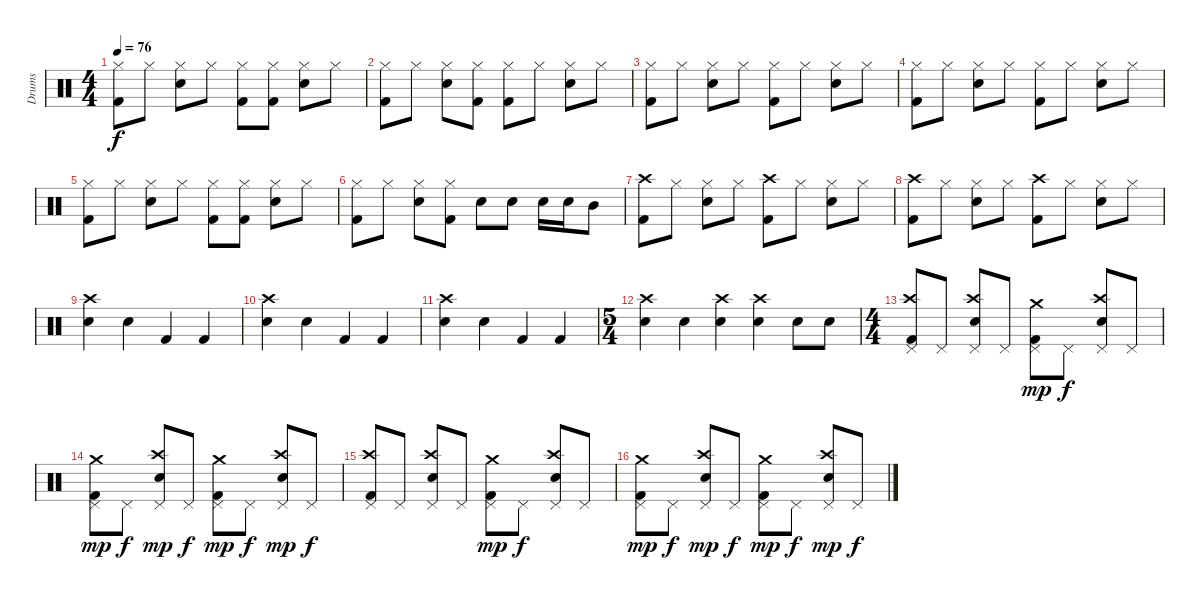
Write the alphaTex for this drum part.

\track ("Drums" "Drums") {instrument percussion}
\staff {score}
\articulation defaults
\ts (4 4)
\tempo 76
\clef neutral
\ks c
("Hi-Hat (closed)" "Kick (hit) 2").8{dy f} "Hi-Hat (closed)".8 ("Hi-Hat (closed)" "Snare (hit) 2").8 "Hi-Hat (closed)".8 ("Hi-Hat (closed)" "Kick (hit) 2").8 ("Hi-Hat (closed)" "Kick (hit) 2").8 ("Hi-Hat (closed)" "Snare (hit) 2").8 "Hi-Hat (closed)".8 |
("Hi-Hat (closed)" "Kick (hit) 2").8 "Hi-Hat (closed)".8 ("Hi-Hat (closed)" "Snare (hit) 2").8 ("Hi-Hat (closed)" "Kick (hit) 2").8 ("Hi-Hat (closed)" "Kick (hit) 2").8 "Hi-Hat (closed)".8 ("Hi-Hat (closed)" "Snare (hit) 2").8 "Hi-Hat (closed)".8 |
("Hi-Hat (closed)" "Kick (hit) 2").8 "Hi-Hat (closed)".8 ("Hi-Hat (closed)" "Snare (hit) 2").8 "Hi-Hat (closed)".8 ("Hi-Hat (closed)" "Kick (hit) 2").8 "Hi-Hat (closed)".8 ("Hi-Hat (closed)" "Snare (hit) 2").8 "Hi-Hat (closed)".8 |
("Hi-Hat (closed)" "Kick (hit) 2").8 "Hi-Hat (closed)".8 ("Hi-Hat (closed)" "Snare (hit) 2").8 "Hi-Hat (closed)".8 ("Hi-Hat (closed)" "Kick (hit) 2").8 "Hi-Hat (closed)".8 ("Hi-Hat (closed)" "Snare (hit) 2").8 "Hi-Hat (closed)".8 |
("Hi-Hat (closed)" "Kick (hit) 2").8 "Hi-Hat (closed)".8 ("Hi-Hat (closed)" "Snare (hit) 2").8 "Hi-Hat (closed)".8 ("Hi-Hat (closed)" "Kick (hit) 2").8 ("Hi-Hat (closed)" "Kick (hit) 2").8 ("Hi-Hat (closed)" "Snare (hit) 2").8 "Hi-Hat (closed)".8 |
("Hi-Hat (closed)" "Kick (hit) 2").8 "Hi-Hat (closed)".8 ("Hi-Hat (closed)" "Snare (hit) 2").8 ("Hi-Hat (closed)" "Kick (hit) 2").8 "Snare (hit) 2".8 "Snare (hit) 2".8 "Snare (hit) 2".16 "Snare (hit) 2".16 "Mid Tom (hit)".8 |
("Crash high (hit)" "Kick (hit) 2").8 "Hi-Hat (closed)".8 ("Hi-Hat (closed)" "Snare (hit) 2").8 "Hi-Hat (closed)".8 ("Crash high (hit)" "Kick (hit) 2").8 "Hi-Hat (closed)".8 ("Hi-Hat (closed)" "Snare (hit) 2").8 "Hi-Hat (closed)".8 |
("Crash high (hit)" "Kick (hit) 2").8 "Hi-Hat (closed)".8 ("Hi-Hat (closed)" "Snare (hit) 2").8 "Hi-Hat (closed)".8 ("Crash high (hit)" "Kick (hit) 2").8 "Hi-Hat (closed)".8 ("Hi-Hat (closed)" "Snare (hit) 2").8 "Hi-Hat (closed)".8 |
("Crash high (hit)" "Snare (hit) 2").4 "Snare (hit) 2".4 "Kick (hit) 2".4 "Kick (hit) 2".4 |
("Crash high (hit)" "Snare (hit) 2").4 "Snare (hit) 2".4 "Kick (hit) 2".4 "Kick (hit) 2".4 |
("Crash high (hit)" "Snare (hit) 2").4 "Snare (hit) 2".4 "Kick (hit) 2".4 "Kick (hit) 2".4 |
\ts (5 4)
("Crash high (hit)" "Snare (hit) 2").4 "Snare (hit) 2".4 ("Crash high (hit)" "Snare (hit) 2").4 ("Crash high (hit)" "Snare (hit) 2").4 "Snare (hit) 2".8 "Snare (hit) 2".8 |
\ts (4 4)
("Crash high (hit)" "Pedal Hi-Hat (hit)" "Kick (hit) 2").8 "Pedal Hi-Hat (hit)".8 ("Crash high (hit)" "Pedal Hi-Hat (hit)" "Snare (hit) 2").8 "Pedal Hi-Hat (hit)".8 ("Crash medium (hit)" "Pedal Hi-Hat (hit)" "Kick (hit) 2").8{dy mp} "Pedal Hi-Hat (hit)".8{dy f} ("Crash high (hit)" "Pedal Hi-Hat (hit)" "Snare (hit) 2").8 "Pedal Hi-Hat (hit)".8 |
("Crash medium (hit)" "Pedal Hi-Hat (hit)" "Kick (hit) 2").8{dy mp} "Pedal Hi-Hat (hit)".8{dy f} ("Crash high (hit)" "Pedal Hi-Hat (hit)" "Snare (hit) 2").8{dy mp} "Pedal Hi-Hat (hit)".8{dy f} ("Crash medium (hit)" "Pedal Hi-Hat (hit)" "Kick (hit) 2").8{dy mp} "Pedal Hi-Hat (hit)".8{dy f} ("Crash high (hit)" "Pedal Hi-Hat (hit)" "Snare (hit) 2").8{dy mp} "Pedal Hi-Hat (hit)".8{dy f} |
("Crash high (hit)" "Pedal Hi-Hat (hit)" "Kick (hit) 2").8 "Pedal Hi-Hat (hit)".8 ("Crash high (hit)" "Pedal Hi-Hat (hit)" "Snare (hit) 2").8 "Pedal Hi-Hat (hit)".8 ("Crash medium (hit)" "Pedal Hi-Hat (hit)" "Kick (hit) 2").8{dy mp} "Pedal Hi-Hat (hit)".8{dy f} ("Crash high (hit)" "Pedal Hi-Hat (hit)" "Snare (hit) 2").8 "Pedal Hi-Hat (hit)".8 |
("Crash medium (hit)" "Pedal Hi-Hat (hit)" "Kick (hit) 2").8{dy mp} "Pedal Hi-Hat (hit)".8{dy f} ("Crash high (hit)" "Pedal Hi-Hat (hit)" "Snare (hit) 2").8{dy mp} "Pedal Hi-Hat (hit)".8{dy f} ("Crash medium (hit)" "Pedal Hi-Hat (hit)" "Kick (hit) 2").8{dy mp} "Pedal Hi-Hat (hit)".8{dy f} ("Crash high (hit)" "Pedal Hi-Hat (hit)" "Snare (hit) 2").8{dy mp} "Pedal Hi-Hat (hit)".8{dy f}
